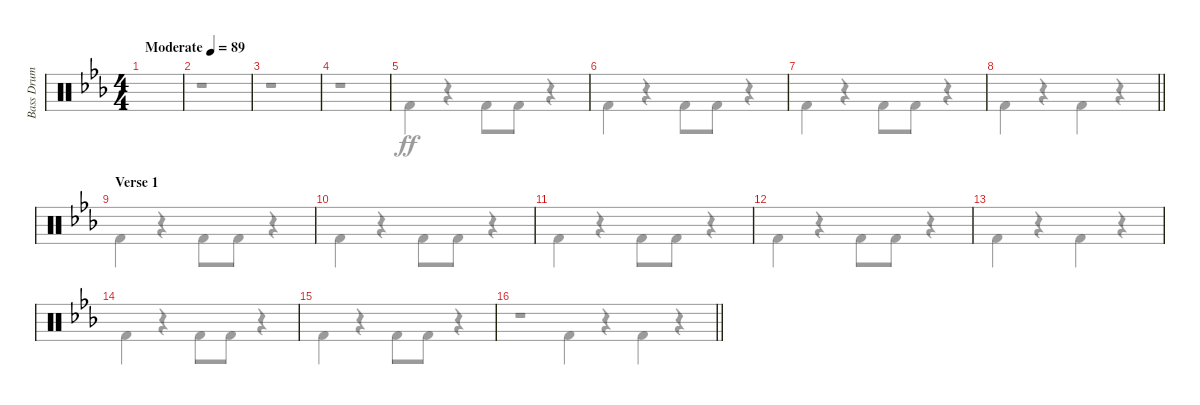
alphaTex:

\track ("Bass Drum" "Bass Drum") {instrument percussion}
\staff {score}
\articulation defaults
\voice
\ts (4 4)
\tempo (89 "Moderate")
\clef neutral
\ks eb
|
|
|
|
|
|
|
\barLineRight lightlight
|
\section ("" "Verse 1")
|
|
|
|
|
|
|
\barLineRight lightlight
\voice
\clef neutral
\ks eb
r.1{dy ff} |
r.1 |
r.1 |
r.1 |
"Kick (hit) 2".4 r.4 "Kick (hit) 2".8 "Kick (hit) 2".8 r.4 |
"Kick (hit) 2".4 r.4 "Kick (hit) 2".8 "Kick (hit) 2".8 r.4 |
"Kick (hit) 2".4 r.4 "Kick (hit) 2".8 "Kick (hit) 2".8 r.4 |
\barLineRight lightlight "Kick (hit) 2".4
r.4 "Kick (hit) 2".4 r.4 |
"Kick (hit) 2".4 r.4 "Kick (hit) 2".8 "Kick (hit) 2".8 r.4 |
"Kick (hit) 2".4 r.4 "Kick (hit) 2".8 "Kick (hit) 2".8 r.4 |
"Kick (hit) 2".4 r.4 "Kick (hit) 2".8 "Kick (hit) 2".8 r.4 |
"Kick (hit) 2".4 r.4 "Kick (hit) 2".8 "Kick (hit) 2".8 r.4 |
"Kick (hit) 2".4 r.4 "Kick (hit) 2".4 r.4 |
"Kick (hit) 2".4 r.4 "Kick (hit) 2".8 "Kick (hit) 2".8 r.4 |
"Kick (hit) 2".4 r.4 "Kick (hit) 2".8 "Kick (hit) 2".8 r.4 |
\barLineRight lightlight "Kick (hit) 2".4
r.4 "Kick (hit) 2".4 r.4
